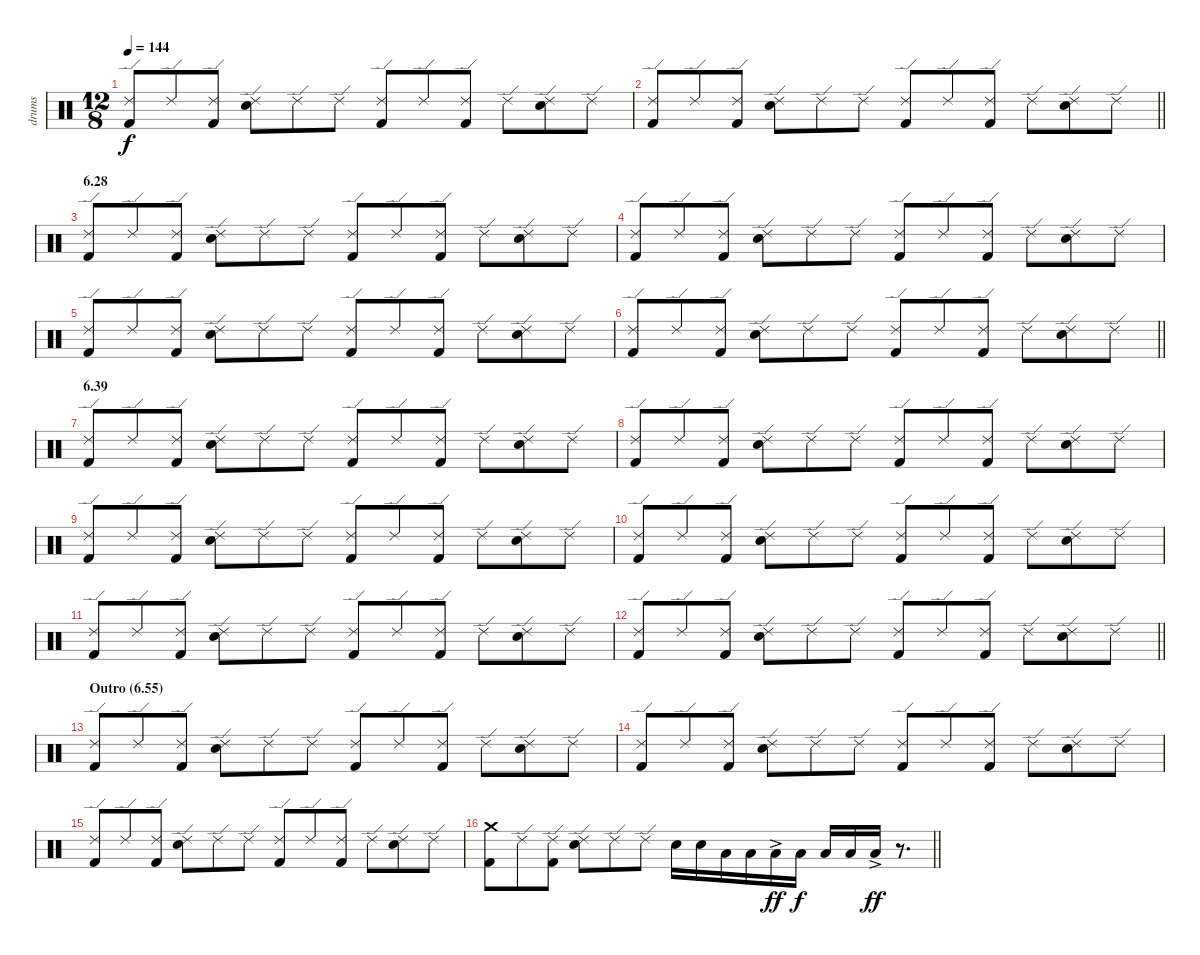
\track ("drums" "drums") {instrument percussion}
\staff {score}
\articulation defaults
\ts (12 8)
\tempo 144
\clef neutral
\ks c
("Ride (edge) 2" "Kick (hit) 2").8{dy f} "Ride (edge) 2".8 ("Ride (edge) 2" "Kick (hit) 2").8 ("Ride (edge) 2" "Electric Snare (hit)").8 "Ride (edge) 2".8 "Ride (edge) 2".8 ("Ride (edge) 2" "Kick (hit) 2").8 "Ride (edge) 2".8 ("Ride (edge) 2" "Kick (hit) 2").8 "Ride (edge) 2".8 ("Ride (edge) 2" "Electric Snare (hit)").8 "Ride (edge) 2".8 |
\barLineRight lightlight
("Ride (edge) 2" "Kick (hit) 2").8 "Ride (edge) 2".8 ("Ride (edge) 2" "Kick (hit) 2").8 ("Ride (edge) 2" "Electric Snare (hit)").8 "Ride (edge) 2".8 "Ride (edge) 2".8 ("Ride (edge) 2" "Kick (hit) 2").8 "Ride (edge) 2".8 ("Ride (edge) 2" "Kick (hit) 2").8 "Ride (edge) 2".8 ("Ride (edge) 2" "Electric Snare (hit)").8 "Ride (edge) 2".8 |
\section ("" "6.28")
("Ride (edge) 2" "Kick (hit) 2").8 "Ride (edge) 2".8 ("Ride (edge) 2" "Kick (hit) 2").8 ("Ride (edge) 2" "Electric Snare (hit)").8 "Ride (edge) 2".8 "Ride (edge) 2".8 ("Ride (edge) 2" "Kick (hit) 2").8 "Ride (edge) 2".8 ("Ride (edge) 2" "Kick (hit) 2").8 "Ride (edge) 2".8 ("Ride (edge) 2" "Electric Snare (hit)").8 "Ride (edge) 2".8 |
("Ride (edge) 2" "Kick (hit) 2").8 "Ride (edge) 2".8 ("Ride (edge) 2" "Kick (hit) 2").8 ("Ride (edge) 2" "Electric Snare (hit)").8 "Ride (edge) 2".8 "Ride (edge) 2".8 ("Ride (edge) 2" "Kick (hit) 2").8 "Ride (edge) 2".8 ("Ride (edge) 2" "Kick (hit) 2").8 "Ride (edge) 2".8 ("Ride (edge) 2" "Electric Snare (hit)").8 "Ride (edge) 2".8 |
("Ride (edge) 2" "Kick (hit) 2").8 "Ride (edge) 2".8 ("Ride (edge) 2" "Kick (hit) 2").8 ("Ride (edge) 2" "Electric Snare (hit)").8 "Ride (edge) 2".8 "Ride (edge) 2".8 ("Ride (edge) 2" "Kick (hit) 2").8 "Ride (edge) 2".8 ("Ride (edge) 2" "Kick (hit) 2").8 "Ride (edge) 2".8 ("Ride (edge) 2" "Electric Snare (hit)").8 "Ride (edge) 2".8 |
\barLineRight lightlight
("Ride (edge) 2" "Kick (hit) 2").8 "Ride (edge) 2".8 ("Ride (edge) 2" "Kick (hit) 2").8 ("Ride (edge) 2" "Electric Snare (hit)").8 "Ride (edge) 2".8 "Ride (edge) 2".8 ("Ride (edge) 2" "Kick (hit) 2").8 "Ride (edge) 2".8 ("Ride (edge) 2" "Kick (hit) 2").8 "Ride (edge) 2".8 ("Ride (edge) 2" "Electric Snare (hit)").8 "Ride (edge) 2".8 |
\section ("" "6.39")
("Ride (edge) 2" "Kick (hit) 2").8 "Ride (edge) 2".8 ("Ride (edge) 2" "Kick (hit) 2").8 ("Ride (edge) 2" "Electric Snare (hit)").8 "Ride (edge) 2".8 "Ride (edge) 2".8 ("Ride (edge) 2" "Kick (hit) 2").8 "Ride (edge) 2".8 ("Ride (edge) 2" "Kick (hit) 2").8 "Ride (edge) 2".8 ("Ride (edge) 2" "Electric Snare (hit)").8 "Ride (edge) 2".8 |
("Ride (edge) 2" "Kick (hit) 2").8 "Ride (edge) 2".8 ("Ride (edge) 2" "Kick (hit) 2").8 ("Ride (edge) 2" "Electric Snare (hit)").8 "Ride (edge) 2".8 "Ride (edge) 2".8 ("Ride (edge) 2" "Kick (hit) 2").8 "Ride (edge) 2".8 ("Ride (edge) 2" "Kick (hit) 2").8 "Ride (edge) 2".8 ("Ride (edge) 2" "Electric Snare (hit)").8 "Ride (edge) 2".8 |
("Ride (edge) 2" "Kick (hit) 2").8 "Ride (edge) 2".8 ("Ride (edge) 2" "Kick (hit) 2").8 ("Ride (edge) 2" "Electric Snare (hit)").8 "Ride (edge) 2".8 "Ride (edge) 2".8 ("Ride (edge) 2" "Kick (hit) 2").8 "Ride (edge) 2".8 ("Ride (edge) 2" "Kick (hit) 2").8 "Ride (edge) 2".8 ("Ride (edge) 2" "Electric Snare (hit)").8 "Ride (edge) 2".8 |
("Ride (edge) 2" "Kick (hit) 2").8 "Ride (edge) 2".8 ("Ride (edge) 2" "Kick (hit) 2").8 ("Ride (edge) 2" "Electric Snare (hit)").8 "Ride (edge) 2".8 "Ride (edge) 2".8 ("Ride (edge) 2" "Kick (hit) 2").8 "Ride (edge) 2".8 ("Ride (edge) 2" "Kick (hit) 2").8 "Ride (edge) 2".8 ("Ride (edge) 2" "Electric Snare (hit)").8 "Ride (edge) 2".8 |
("Ride (edge) 2" "Kick (hit) 2").8 "Ride (edge) 2".8 ("Ride (edge) 2" "Kick (hit) 2").8 ("Ride (edge) 2" "Electric Snare (hit)").8 "Ride (edge) 2".8 "Ride (edge) 2".8 ("Ride (edge) 2" "Kick (hit) 2").8 "Ride (edge) 2".8 ("Ride (edge) 2" "Kick (hit) 2").8 "Ride (edge) 2".8 ("Ride (edge) 2" "Electric Snare (hit)").8 "Ride (edge) 2".8 |
\barLineRight lightlight
("Ride (edge) 2" "Kick (hit) 2").8 "Ride (edge) 2".8 ("Ride (edge) 2" "Kick (hit) 2").8 ("Ride (edge) 2" "Electric Snare (hit)").8 "Ride (edge) 2".8 "Ride (edge) 2".8 ("Ride (edge) 2" "Kick (hit) 2").8 "Ride (edge) 2".8 ("Ride (edge) 2" "Kick (hit) 2").8 "Ride (edge) 2".8 ("Ride (edge) 2" "Electric Snare (hit)").8 "Ride (edge) 2".8 |
\section ("" "Outro (6.55)")
("Ride (edge) 2" "Kick (hit) 2").8 "Ride (edge) 2".8 ("Ride (edge) 2" "Kick (hit) 2").8 ("Ride (edge) 2" "Electric Snare (hit)").8 "Ride (edge) 2".8 "Ride (edge) 2".8 ("Ride (edge) 2" "Kick (hit) 2").8 "Ride (edge) 2".8 ("Ride (edge) 2" "Kick (hit) 2").8 "Ride (edge) 2".8 ("Ride (edge) 2" "Electric Snare (hit)").8 "Ride (edge) 2".8 |
("Ride (edge) 2" "Kick (hit) 2").8 "Ride (edge) 2".8 ("Ride (edge) 2" "Kick (hit) 2").8 ("Ride (edge) 2" "Electric Snare (hit)").8 "Ride (edge) 2".8 "Ride (edge) 2".8 ("Ride (edge) 2" "Kick (hit) 2").8 "Ride (edge) 2".8 ("Ride (edge) 2" "Kick (hit) 2").8 "Ride (edge) 2".8 ("Ride (edge) 2" "Electric Snare (hit)").8 "Ride (edge) 2".8 |
("Ride (edge) 2" "Kick (hit) 2").8 "Ride (edge) 2".8 ("Ride (edge) 2" "Kick (hit) 2").8 ("Ride (edge) 2" "Electric Snare (hit)").8 "Ride (edge) 2".8 "Ride (edge) 2".8 ("Ride (edge) 2" "Kick (hit) 2").8 "Ride (edge) 2".8 ("Ride (edge) 2" "Kick (hit) 2").8 "Ride (edge) 2".8 ("Ride (edge) 2" "Electric Snare (hit)").8 "Ride (edge) 2".8 |
\barLineRight lightlight
("Crash medium (hit)" "Kick (hit) 2").8 "Ride (edge) 2".8 ("Ride (edge) 2" "Kick (hit) 2").8 ("Ride (edge) 2" "Electric Snare (hit)").8 "Ride (edge) 2".8 "Ride (edge) 2".8 "Electric Snare (hit)".16 "Electric Snare (hit)".16 "Low Tom (hit)".16 "Low Tom (hit)".16 "Low Tom (hit)"{ac}.16{dy ff} "Low Tom (hit)".16{dy f} "Low Tom (hit)".16 "Low Tom (hit)".16 "Low Tom (hit)"{ac}.16{dy ff} r.8{d}
